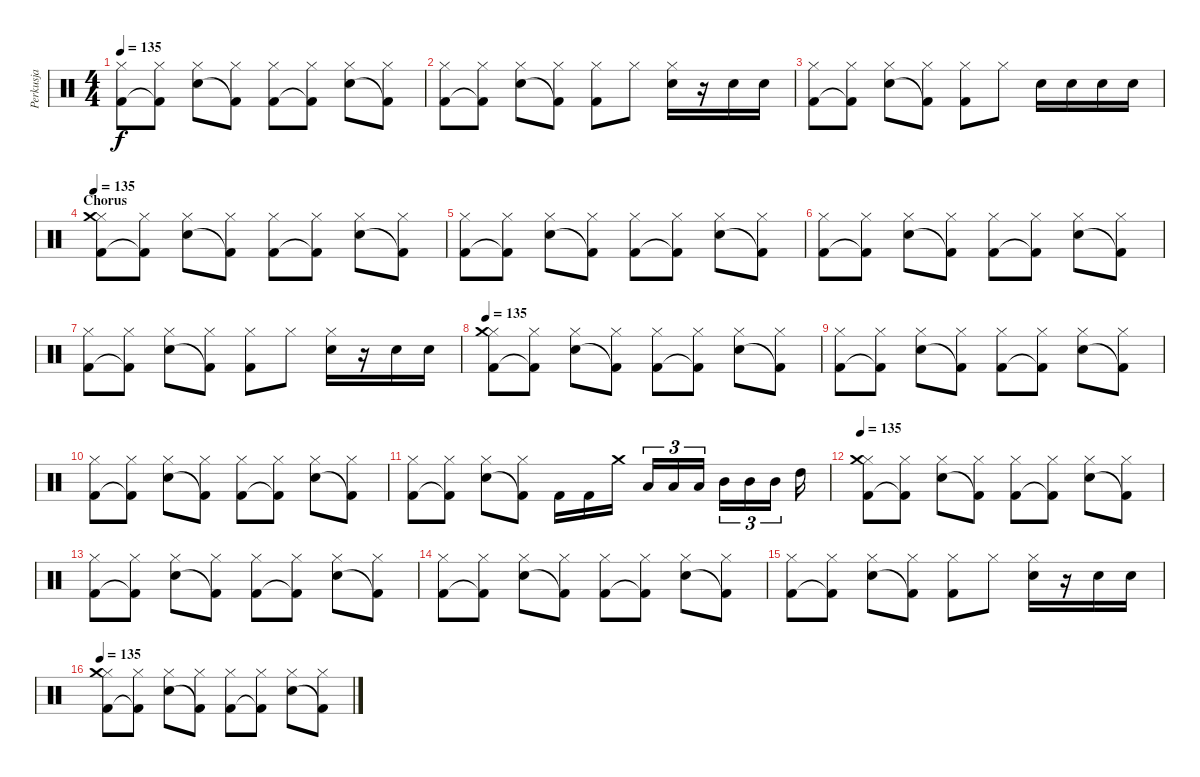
\track ("Perkusja" "Perkusja") {instrument percussion}
\staff {score}
\articulation defaults
\ts (4 4)
\tempo 135
\clef neutral
\ks c
("Kick (hit) 2" "Hi-Hat (closed)").8{dy f} ("Kick (hit) 2"{t} "Hi-Hat (closed)").8 ("Snare (hit) 2" "Hi-Hat (closed)").8 ("Kick (hit) 2"{t} "Hi-Hat (closed)").8 ("Kick (hit) 2" "Hi-Hat (closed)").8 ("Kick (hit) 2"{t} "Hi-Hat (closed)").8 ("Snare (hit) 2" "Hi-Hat (closed)").8 ("Kick (hit) 2"{t} "Hi-Hat (closed)").8 |
("Kick (hit) 2" "Hi-Hat (closed)").8 ("Kick (hit) 2"{t} "Hi-Hat (closed)").8 ("Snare (hit) 2" "Hi-Hat (closed)").8 ("Kick (hit) 2"{t} "Hi-Hat (closed)").8 ("Kick (hit) 2" "Hi-Hat (closed)").8 "Hi-Hat (closed)".8 ("Snare (hit) 2" "Hi-Hat (closed)").16 r.16 "Snare (hit) 2".16 "Snare (hit) 2".16 |
("Kick (hit) 2" "Hi-Hat (closed)").8 ("Kick (hit) 2"{t} "Hi-Hat (closed)").8 ("Snare (hit) 2" "Hi-Hat (closed)").8 ("Kick (hit) 2"{t} "Hi-Hat (closed)").8 ("Kick (hit) 2" "Hi-Hat (closed)").8 "Hi-Hat (closed)".8 "Snare (hit) 2".16 "Snare (hit) 2".16 "Snare (hit) 2".16 "Snare (hit) 2".16 |
\section ("" "Chorus")
\tempo 135
("Kick (hit) 2" "Hi-Hat (closed)" "Crash medium (hit)").8 ("Kick (hit) 2"{t} "Hi-Hat (closed)").8 ("Snare (hit) 2" "Hi-Hat (closed)").8 ("Kick (hit) 2"{t} "Hi-Hat (closed)").8 ("Kick (hit) 2" "Hi-Hat (closed)").8 ("Kick (hit) 2"{t} "Hi-Hat (closed)").8 ("Snare (hit) 2" "Hi-Hat (closed)").8 ("Kick (hit) 2"{t} "Hi-Hat (closed)").8 |
("Kick (hit) 2" "Hi-Hat (closed)").8 ("Kick (hit) 2"{t} "Hi-Hat (closed)").8 ("Snare (hit) 2" "Hi-Hat (closed)").8 ("Kick (hit) 2"{t} "Hi-Hat (closed)").8 ("Kick (hit) 2" "Hi-Hat (closed)").8 ("Kick (hit) 2"{t} "Hi-Hat (closed)").8 ("Snare (hit) 2" "Hi-Hat (closed)").8 ("Kick (hit) 2"{t} "Hi-Hat (closed)").8 |
("Kick (hit) 2" "Hi-Hat (closed)").8 ("Kick (hit) 2"{t} "Hi-Hat (closed)").8 ("Snare (hit) 2" "Hi-Hat (closed)").8 ("Kick (hit) 2"{t} "Hi-Hat (closed)").8 ("Kick (hit) 2" "Hi-Hat (closed)").8 ("Kick (hit) 2"{t} "Hi-Hat (closed)").8 ("Snare (hit) 2" "Hi-Hat (closed)").8 ("Kick (hit) 2"{t} "Hi-Hat (closed)").8 |
("Kick (hit) 2" "Hi-Hat (closed)").8 ("Kick (hit) 2"{t} "Hi-Hat (closed)").8 ("Snare (hit) 2" "Hi-Hat (closed)").8 ("Kick (hit) 2"{t} "Hi-Hat (closed)").8 ("Kick (hit) 2" "Hi-Hat (closed)").8 "Hi-Hat (closed)".8 ("Snare (hit) 2" "Hi-Hat (closed)").16 r.16 "Snare (hit) 2".16 "Snare (hit) 2".16 |
\tempo 135
("Kick (hit) 2" "Hi-Hat (closed)" "Crash medium (hit)").8 ("Kick (hit) 2"{t} "Hi-Hat (closed)").8 ("Snare (hit) 2" "Hi-Hat (closed)").8 ("Kick (hit) 2"{t} "Hi-Hat (closed)").8 ("Kick (hit) 2" "Hi-Hat (closed)").8 ("Kick (hit) 2"{t} "Hi-Hat (closed)").8 ("Snare (hit) 2" "Hi-Hat (closed)").8 ("Kick (hit) 2"{t} "Hi-Hat (closed)").8 |
("Kick (hit) 2" "Hi-Hat (closed)").8 ("Kick (hit) 2"{t} "Hi-Hat (closed)").8 ("Snare (hit) 2" "Hi-Hat (closed)").8 ("Kick (hit) 2"{t} "Hi-Hat (closed)").8 ("Kick (hit) 2" "Hi-Hat (closed)").8 ("Kick (hit) 2"{t} "Hi-Hat (closed)").8 ("Snare (hit) 2" "Hi-Hat (closed)").8 ("Kick (hit) 2"{t} "Hi-Hat (closed)").8 |
("Kick (hit) 2" "Hi-Hat (closed)").8 ("Kick (hit) 2"{t} "Hi-Hat (closed)").8 ("Snare (hit) 2" "Hi-Hat (closed)").8 ("Kick (hit) 2"{t} "Hi-Hat (closed)").8 ("Kick (hit) 2" "Hi-Hat (closed)").8 ("Kick (hit) 2"{t} "Hi-Hat (closed)").8 ("Snare (hit) 2" "Hi-Hat (closed)").8 ("Kick (hit) 2"{t} "Hi-Hat (closed)").8 |
("Kick (hit) 2" "Hi-Hat (closed)").8 ("Kick (hit) 2"{t} "Hi-Hat (closed)").8 ("Snare (hit) 2" "Hi-Hat (closed)").8 ("Kick (hit) 2"{t} "Hi-Hat (closed)").8 "Kick (hit) 2".16 "Kick (hit) 2".16 "Crash medium (hit)".16 "Low Tom (hit)".16{tu (3 2)} "Low Tom (hit)".16{tu (3 2)} "Low Tom (hit)".16{tu (3 2)} "Mid Tom (hit)".16{tu (3 2)} "Mid Tom (hit)".16{tu (3 2)} "Mid Tom (hit)".16{tu (3 2)} "High Tom (hit)".16 |
\tempo 135
("Kick (hit) 2" "Hi-Hat (closed)" "Crash medium (hit)").8 ("Kick (hit) 2"{t} "Hi-Hat (closed)").8 ("Snare (hit) 2" "Hi-Hat (closed)").8 ("Kick (hit) 2"{t} "Hi-Hat (closed)").8 ("Kick (hit) 2" "Hi-Hat (closed)").8 ("Kick (hit) 2"{t} "Hi-Hat (closed)").8 ("Snare (hit) 2" "Hi-Hat (closed)").8 ("Kick (hit) 2"{t} "Hi-Hat (closed)").8 |
("Kick (hit) 2" "Hi-Hat (closed)").8 ("Kick (hit) 2"{t} "Hi-Hat (closed)").8 ("Snare (hit) 2" "Hi-Hat (closed)").8 ("Kick (hit) 2"{t} "Hi-Hat (closed)").8 ("Kick (hit) 2" "Hi-Hat (closed)").8 ("Kick (hit) 2"{t} "Hi-Hat (closed)").8 ("Snare (hit) 2" "Hi-Hat (closed)").8 ("Kick (hit) 2"{t} "Hi-Hat (closed)").8 |
("Kick (hit) 2" "Hi-Hat (closed)").8 ("Kick (hit) 2"{t} "Hi-Hat (closed)").8 ("Snare (hit) 2" "Hi-Hat (closed)").8 ("Kick (hit) 2"{t} "Hi-Hat (closed)").8 ("Kick (hit) 2" "Hi-Hat (closed)").8 ("Kick (hit) 2"{t} "Hi-Hat (closed)").8 ("Snare (hit) 2" "Hi-Hat (closed)").8 ("Kick (hit) 2"{t} "Hi-Hat (closed)").8 |
("Kick (hit) 2" "Hi-Hat (closed)").8 ("Kick (hit) 2"{t} "Hi-Hat (closed)").8 ("Snare (hit) 2" "Hi-Hat (closed)").8 ("Kick (hit) 2"{t} "Hi-Hat (closed)").8 ("Kick (hit) 2" "Hi-Hat (closed)").8 "Hi-Hat (closed)".8 ("Snare (hit) 2" "Hi-Hat (closed)").16 r.16 "Snare (hit) 2".16 "Snare (hit) 2".16 |
\tempo 135
("Kick (hit) 2" "Hi-Hat (closed)" "Crash medium (hit)").8 ("Kick (hit) 2"{t} "Hi-Hat (closed)").8 ("Snare (hit) 2" "Hi-Hat (closed)").8 ("Kick (hit) 2"{t} "Hi-Hat (closed)").8 ("Kick (hit) 2" "Hi-Hat (closed)").8 ("Kick (hit) 2"{t} "Hi-Hat (closed)").8 ("Snare (hit) 2" "Hi-Hat (closed)").8 ("Kick (hit) 2"{t} "Hi-Hat (closed)").8
